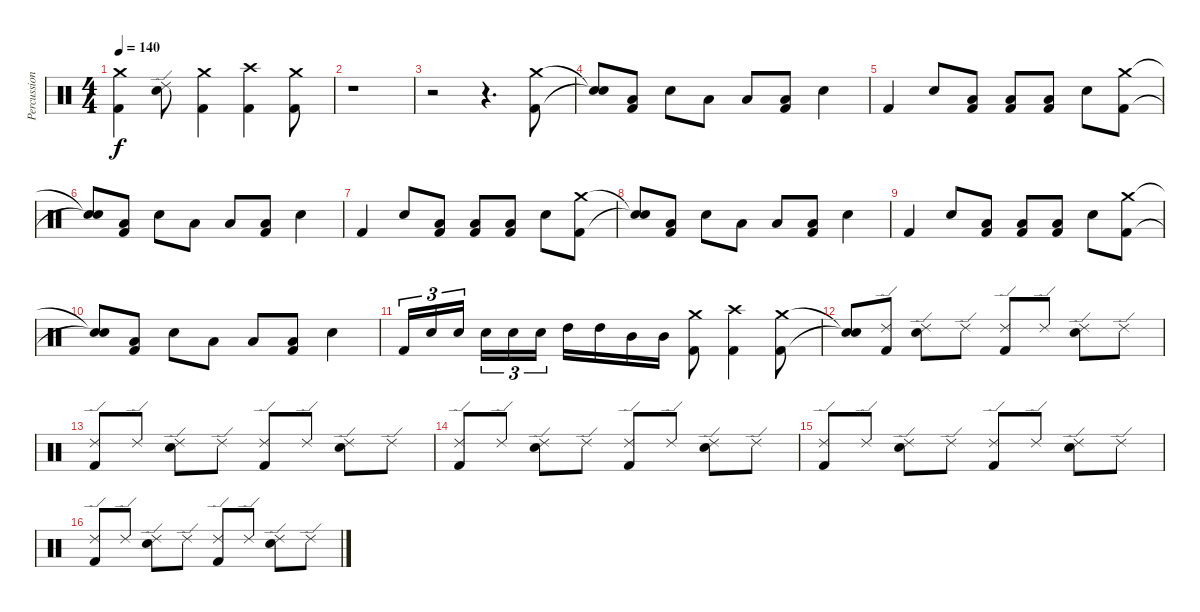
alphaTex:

\track ("Percussion" "Percussion") {instrument percussion}
\staff {score}
\articulation defaults
\ts (4 4)
\tempo 140
\clef neutral
\ks c
("Crash medium (hit)" "Kick (hit) 2").4{dy f} ("Ride (edge) 2" "Electric Snare (hit)").8 ("Crash medium (hit)" "Kick (hit) 2").4 ("Crash high (hit)" "Kick (hit) 2").4 ("Crash medium (hit)" "Kick (hit) 2").8 |
r.1 |
r.2 r.4{d} ("Crash medium (hit)" "Kick (hit) 2").8 |
("Snare (hit)"{t} "Snare (hit)"{t}).8 ("Low Tom (hit)" "Kick (hit) 2").8 "Electric Snare (hit)".8 "Low Tom (hit)".8 "Low Tom (hit)".8 ("Low Tom (hit)" "Kick (hit) 2").8 "Electric Snare (hit)".4 |
"Kick (hit) 2".4 "Electric Snare (hit)".8 ("Low Tom (hit)" "Kick (hit) 2").8 ("Low Tom (hit)" "Kick (hit) 2").8 ("Low Tom (hit)" "Kick (hit) 2").8 "Electric Snare (hit)".8 ("Crash medium (hit)" "Kick (hit) 2").8 |
("Snare (hit)"{t} "Snare (hit)"{t}).8 ("Low Tom (hit)" "Kick (hit) 2").8 "Electric Snare (hit)".8 "Low Tom (hit)".8 "Low Tom (hit)".8 ("Low Tom (hit)" "Kick (hit) 2").8 "Electric Snare (hit)".4 |
"Kick (hit) 2".4 "Electric Snare (hit)".8 ("Low Tom (hit)" "Kick (hit) 2").8 ("Low Tom (hit)" "Kick (hit) 2").8 ("Low Tom (hit)" "Kick (hit) 2").8 "Electric Snare (hit)".8 ("Crash medium (hit)" "Kick (hit) 2").8 |
("Snare (hit)"{t} "Snare (hit)"{t}).8 ("Low Tom (hit)" "Kick (hit) 2").8 "Electric Snare (hit)".8 "Low Tom (hit)".8 "Low Tom (hit)".8 ("Low Tom (hit)" "Kick (hit) 2").8 "Electric Snare (hit)".4 |
"Kick (hit) 2".4 "Electric Snare (hit)".8 ("Low Tom (hit)" "Kick (hit) 2").8 ("Low Tom (hit)" "Kick (hit) 2").8 ("Low Tom (hit)" "Kick (hit) 2").8 "Electric Snare (hit)".8 ("Crash medium (hit)" "Kick (hit) 2").8 |
("Snare (hit)"{t} "Snare (hit)"{t}).8 ("Low Tom (hit)" "Kick (hit) 2").8 "Electric Snare (hit)".8 "Low Tom (hit)".8 "Low Tom (hit)".8 ("Low Tom (hit)" "Kick (hit) 2").8 "Electric Snare (hit)".4 |
"Kick (hit) 2".16{tu (3 2)} "Electric Snare (hit)".16{tu (3 2)} "Electric Snare (hit)".16{tu (3 2)} "Electric Snare (hit)".16{tu (3 2)} "Electric Snare (hit)".16{tu (3 2)} "Electric Snare (hit)".16{tu (3 2)} "High Tom (hit)".16 "High Tom (hit)".16 "Mid Tom (hit)".16 "Mid Tom (hit)".16 ("Crash medium (hit)" "Kick (hit) 2").8 ("Crash high (hit)" "Kick (hit) 2").4 ("Crash medium (hit)" "Kick (hit) 2").8 |
("Snare (hit)"{t} "Snare (hit)"{t}).8 ("Ride (edge) 2" "Kick (hit) 2").8 ("Ride (edge) 2" "Electric Snare (hit)").8 "Ride (edge) 2".8 ("Ride (edge) 2" "Kick (hit) 2").8 "Ride (edge) 2".8 ("Ride (edge) 2" "Electric Snare (hit)").8 "Ride (edge) 2".8 |
("Ride (edge) 2" "Kick (hit) 2").8 "Ride (edge) 2".8 ("Ride (edge) 2" "Electric Snare (hit)").8 "Ride (edge) 2".8 ("Ride (edge) 2" "Kick (hit) 2").8 "Ride (edge) 2".8 ("Ride (edge) 2" "Electric Snare (hit)").8 "Ride (edge) 2".8 |
("Ride (edge) 2" "Kick (hit) 2").8 "Ride (edge) 2".8 ("Ride (edge) 2" "Electric Snare (hit)").8 "Ride (edge) 2".8 ("Ride (edge) 2" "Kick (hit) 2").8 "Ride (edge) 2".8 ("Ride (edge) 2" "Electric Snare (hit)").8 "Ride (edge) 2".8 |
("Ride (edge) 2" "Kick (hit) 2").8 "Ride (edge) 2".8 ("Ride (edge) 2" "Electric Snare (hit)").8 "Ride (edge) 2".8 ("Ride (edge) 2" "Kick (hit) 2").8 "Ride (edge) 2".8 ("Ride (edge) 2" "Electric Snare (hit)").8 "Ride (edge) 2".8 |
("Ride (edge) 2" "Kick (hit) 2").8 "Ride (edge) 2".8 ("Ride (edge) 2" "Electric Snare (hit)").8 "Ride (edge) 2".8 ("Ride (edge) 2" "Kick (hit) 2").8 "Ride (edge) 2".8 ("Ride (edge) 2" "Electric Snare (hit)").8 "Ride (edge) 2".8
